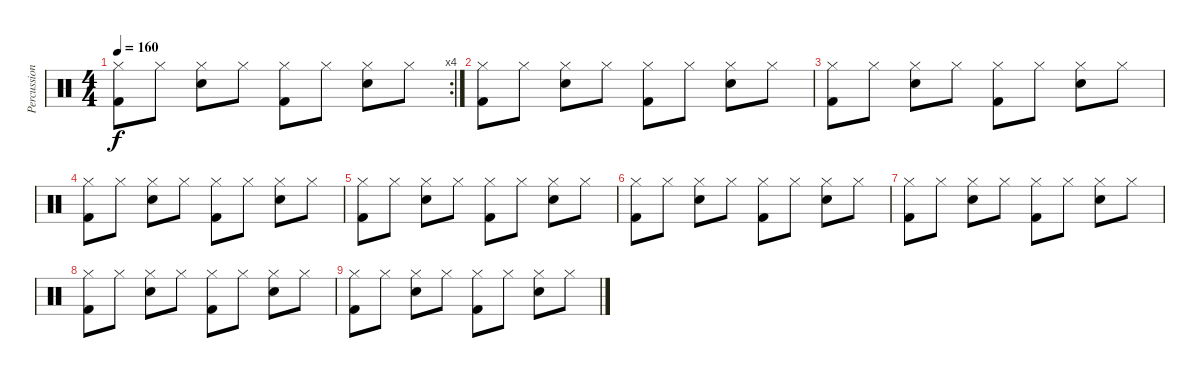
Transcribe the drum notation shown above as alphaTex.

\track ("Percussion" "Percussion") {instrument percussion}
\staff {score}
\articulation defaults
\rc 4
\ts (4 4)
\tempo 160
\clef neutral
\ks c
("Hi-Hat (closed)" "Kick (hit) 2").8{dy f} "Hi-Hat (closed)".8 ("Hi-Hat (closed)" "Electric Snare (hit)").8 "Hi-Hat (closed)".8 ("Hi-Hat (closed)" "Kick (hit) 2").8 "Hi-Hat (closed)".8 ("Hi-Hat (closed)" "Electric Snare (hit)").8 "Hi-Hat (closed)".8 |
("Hi-Hat (closed)" "Kick (hit) 2").8 "Hi-Hat (closed)".8 ("Hi-Hat (closed)" "Electric Snare (hit)").8 "Hi-Hat (closed)".8 ("Hi-Hat (closed)" "Kick (hit) 2").8 "Hi-Hat (closed)".8 ("Hi-Hat (closed)" "Electric Snare (hit)").8 "Hi-Hat (closed)".8 |
("Hi-Hat (closed)" "Kick (hit) 2").8 "Hi-Hat (closed)".8 ("Hi-Hat (closed)" "Electric Snare (hit)").8 "Hi-Hat (closed)".8 ("Hi-Hat (closed)" "Kick (hit) 2").8 "Hi-Hat (closed)".8 ("Hi-Hat (closed)" "Electric Snare (hit)").8 "Hi-Hat (closed)".8 |
("Hi-Hat (closed)" "Kick (hit) 2").8 "Hi-Hat (closed)".8 ("Hi-Hat (closed)" "Electric Snare (hit)").8 "Hi-Hat (closed)".8 ("Hi-Hat (closed)" "Kick (hit) 2").8 "Hi-Hat (closed)".8 ("Hi-Hat (closed)" "Electric Snare (hit)").8 "Hi-Hat (closed)".8 |
("Hi-Hat (closed)" "Kick (hit) 2").8 "Hi-Hat (closed)".8 ("Hi-Hat (closed)" "Electric Snare (hit)").8 "Hi-Hat (closed)".8 ("Hi-Hat (closed)" "Kick (hit) 2").8 "Hi-Hat (closed)".8 ("Hi-Hat (closed)" "Electric Snare (hit)").8 "Hi-Hat (closed)".8 |
("Hi-Hat (closed)" "Kick (hit) 2").8 "Hi-Hat (closed)".8 ("Hi-Hat (closed)" "Electric Snare (hit)").8 "Hi-Hat (closed)".8 ("Hi-Hat (closed)" "Kick (hit) 2").8 "Hi-Hat (closed)".8 ("Hi-Hat (closed)" "Electric Snare (hit)").8 "Hi-Hat (closed)".8 |
("Hi-Hat (closed)" "Kick (hit) 2").8 "Hi-Hat (closed)".8 ("Hi-Hat (closed)" "Electric Snare (hit)").8 "Hi-Hat (closed)".8 ("Hi-Hat (closed)" "Kick (hit) 2").8 "Hi-Hat (closed)".8 ("Hi-Hat (closed)" "Electric Snare (hit)").8 "Hi-Hat (closed)".8 |
("Hi-Hat (closed)" "Kick (hit) 2").8 "Hi-Hat (closed)".8 ("Hi-Hat (closed)" "Electric Snare (hit)").8 "Hi-Hat (closed)".8 ("Hi-Hat (closed)" "Kick (hit) 2").8 "Hi-Hat (closed)".8 ("Hi-Hat (closed)" "Electric Snare (hit)").8 "Hi-Hat (closed)".8 |
("Hi-Hat (closed)" "Kick (hit) 2").8 "Hi-Hat (closed)".8 ("Hi-Hat (closed)" "Electric Snare (hit)").8 "Hi-Hat (closed)".8 ("Hi-Hat (closed)" "Kick (hit) 2").8 "Hi-Hat (closed)".8 ("Hi-Hat (closed)" "Electric Snare (hit)").8 "Hi-Hat (closed)".8
